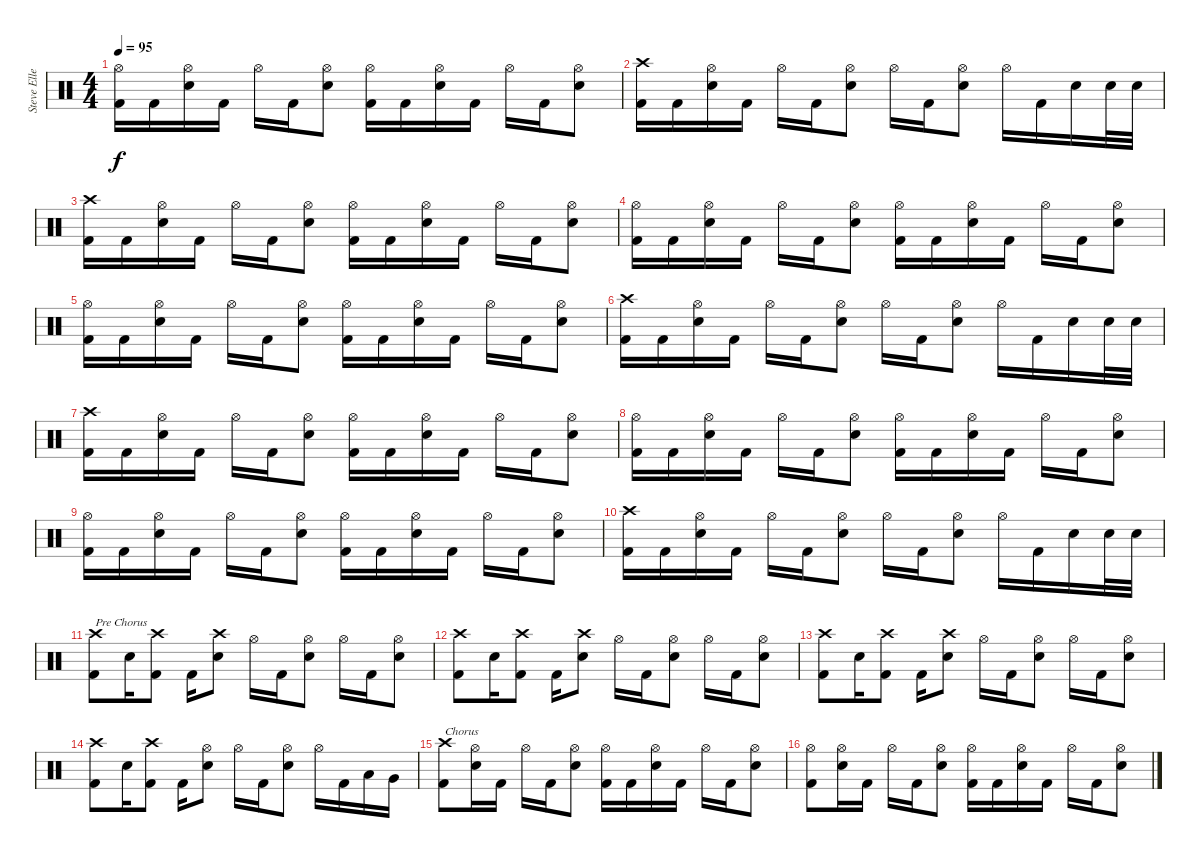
\track ("Steve Ellett" "Steve Elle") {instrument percussion}
\staff {score}
\articulation defaults
\ts (4 4)
\tempo 95
\clef neutral
\ks c
("Hi-Hat (open)" "Kick (hit) 2").16{dy f} "Kick (hit) 2".16 ("Hi-Hat (open)" "Snare (hit) 2").16 "Kick (hit) 2".16 "Hi-Hat (open)".16 "Kick (hit) 2".16 ("Hi-Hat (open)" "Snare (hit) 2").8 ("Hi-Hat (open)" "Kick (hit) 2").16 "Kick (hit) 2".16 ("Hi-Hat (open)" "Snare (hit) 2").16 "Kick (hit) 2".16 "Hi-Hat (open)".16 "Kick (hit) 2".16 ("Hi-Hat (open)" "Snare (hit) 2").8 |
("Crash high (hit)" "Kick (hit) 2").16 "Kick (hit) 2".16 ("Hi-Hat (open)" "Snare (hit) 2").16 "Kick (hit) 2".16 "Hi-Hat (open)".16 "Kick (hit) 2".16 ("Hi-Hat (open)" "Snare (hit) 2").8 "Hi-Hat (open)".16 "Kick (hit) 2".16 ("Hi-Hat (open)" "Snare (hit) 2").8 "Hi-Hat (open)".16 "Kick (hit) 2".16 "Snare (hit) 2".16 "Snare (hit) 2".32 "Snare (hit) 2".32 |
("Crash high (hit)" "Kick (hit) 2").16 "Kick (hit) 2".16 ("Hi-Hat (open)" "Snare (hit) 2").16 "Kick (hit) 2".16 "Hi-Hat (open)".16 "Kick (hit) 2".16 ("Hi-Hat (open)" "Snare (hit) 2").8 ("Hi-Hat (open)" "Kick (hit) 2").16 "Kick (hit) 2".16 ("Hi-Hat (open)" "Snare (hit) 2").16 "Kick (hit) 2".16 "Hi-Hat (open)".16 "Kick (hit) 2".16 ("Hi-Hat (open)" "Snare (hit) 2").8 |
("Hi-Hat (open)" "Kick (hit) 2").16 "Kick (hit) 2".16 ("Hi-Hat (open)" "Snare (hit) 2").16 "Kick (hit) 2".16 "Hi-Hat (open)".16 "Kick (hit) 2".16 ("Hi-Hat (open)" "Snare (hit) 2").8 ("Hi-Hat (open)" "Kick (hit) 2").16 "Kick (hit) 2".16 ("Hi-Hat (open)" "Snare (hit) 2").16 "Kick (hit) 2".16 "Hi-Hat (open)".16 "Kick (hit) 2".16 ("Hi-Hat (open)" "Snare (hit) 2").8 |
("Hi-Hat (open)" "Kick (hit) 2").16 "Kick (hit) 2".16 ("Hi-Hat (open)" "Snare (hit) 2").16 "Kick (hit) 2".16 "Hi-Hat (open)".16 "Kick (hit) 2".16 ("Hi-Hat (open)" "Snare (hit) 2").8 ("Hi-Hat (open)" "Kick (hit) 2").16 "Kick (hit) 2".16 ("Hi-Hat (open)" "Snare (hit) 2").16 "Kick (hit) 2".16 "Hi-Hat (open)".16 "Kick (hit) 2".16 ("Hi-Hat (open)" "Snare (hit) 2").8 |
("Crash high (hit)" "Kick (hit) 2").16 "Kick (hit) 2".16 ("Hi-Hat (open)" "Snare (hit) 2").16 "Kick (hit) 2".16 "Hi-Hat (open)".16 "Kick (hit) 2".16 ("Hi-Hat (open)" "Snare (hit) 2").8 "Hi-Hat (open)".16 "Kick (hit) 2".16 ("Hi-Hat (open)" "Snare (hit) 2").8 "Hi-Hat (open)".16 "Kick (hit) 2".16 "Snare (hit) 2".16 "Snare (hit) 2".32 "Snare (hit) 2".32 |
("Crash high (hit)" "Kick (hit) 2").16 "Kick (hit) 2".16 ("Hi-Hat (open)" "Snare (hit) 2").16 "Kick (hit) 2".16 "Hi-Hat (open)".16 "Kick (hit) 2".16 ("Hi-Hat (open)" "Snare (hit) 2").8 ("Hi-Hat (open)" "Kick (hit) 2").16 "Kick (hit) 2".16 ("Hi-Hat (open)" "Snare (hit) 2").16 "Kick (hit) 2".16 "Hi-Hat (open)".16 "Kick (hit) 2".16 ("Hi-Hat (open)" "Snare (hit) 2").8 |
("Hi-Hat (open)" "Kick (hit) 2").16 "Kick (hit) 2".16 ("Hi-Hat (open)" "Snare (hit) 2").16 "Kick (hit) 2".16 "Hi-Hat (open)".16 "Kick (hit) 2".16 ("Hi-Hat (open)" "Snare (hit) 2").8 ("Hi-Hat (open)" "Kick (hit) 2").16 "Kick (hit) 2".16 ("Hi-Hat (open)" "Snare (hit) 2").16 "Kick (hit) 2".16 "Hi-Hat (open)".16 "Kick (hit) 2".16 ("Hi-Hat (open)" "Snare (hit) 2").8 |
("Hi-Hat (open)" "Kick (hit) 2").16 "Kick (hit) 2".16 ("Hi-Hat (open)" "Snare (hit) 2").16 "Kick (hit) 2".16 "Hi-Hat (open)".16 "Kick (hit) 2".16 ("Hi-Hat (open)" "Snare (hit) 2").8 ("Hi-Hat (open)" "Kick (hit) 2").16 "Kick (hit) 2".16 ("Hi-Hat (open)" "Snare (hit) 2").16 "Kick (hit) 2".16 "Hi-Hat (open)".16 "Kick (hit) 2".16 ("Hi-Hat (open)" "Snare (hit) 2").8 |
("Crash high (hit)" "Kick (hit) 2").16 "Kick (hit) 2".16 ("Hi-Hat (open)" "Snare (hit) 2").16 "Kick (hit) 2".16 "Hi-Hat (open)".16 "Kick (hit) 2".16 ("Hi-Hat (open)" "Snare (hit) 2").8 "Hi-Hat (open)".16 "Kick (hit) 2".16 ("Hi-Hat (open)" "Snare (hit) 2").8 "Hi-Hat (open)".16 "Kick (hit) 2".16 "Snare (hit) 2".16 "Snare (hit) 2".32 "Snare (hit) 2".32 |
("Crash high (hit)" "Kick (hit) 2").8{txt "Pre Chorus"} "Snare (hit) 2".16 ("Crash high (hit)" "Kick (hit) 2").8 "Kick (hit) 2".16 ("Crash high (hit)" "Snare (hit) 2").8 "Hi-Hat (open)".16 "Kick (hit) 2".16 ("Hi-Hat (open)" "Snare (hit) 2").8 "Hi-Hat (open)".16 "Kick (hit) 2".16 ("Hi-Hat (open)" "Snare (hit) 2").8 |
("Crash high (hit)" "Kick (hit) 2").8 "Snare (hit) 2".16 ("Crash high (hit)" "Kick (hit) 2").8 "Kick (hit) 2".16 ("Crash high (hit)" "Snare (hit) 2").8 "Hi-Hat (open)".16 "Kick (hit) 2".16 ("Hi-Hat (open)" "Snare (hit) 2").8 "Hi-Hat (open)".16 "Kick (hit) 2".16 ("Hi-Hat (open)" "Snare (hit) 2").8 |
("Crash high (hit)" "Kick (hit) 2").8 "Snare (hit) 2".16 ("Crash high (hit)" "Kick (hit) 2").8 "Kick (hit) 2".16 ("Crash high (hit)" "Snare (hit) 2").8 "Hi-Hat (open)".16 "Kick (hit) 2".16 ("Hi-Hat (open)" "Snare (hit) 2").8 "Hi-Hat (open)".16 "Kick (hit) 2".16 ("Hi-Hat (open)" "Snare (hit) 2").8 |
("Crash high (hit)" "Kick (hit) 2").8 "Snare (hit) 2".16 ("Crash high (hit)" "Kick (hit) 2").8 "Kick (hit) 2".16 ("Hi-Hat (open)" "Snare (hit) 2").8 "Hi-Hat (open)".16 "Kick (hit) 2".16 ("Hi-Hat (open)" "Snare (hit) 2").8 "Hi-Hat (open)".16 "Kick (hit) 2".16 "Low Tom (hit)".16 "Very Low Tom (hit)".16 |
("Crash high (hit)" "Kick (hit) 2").8{txt "Chorus"} ("Hi-Hat (open)" "Snare (hit) 2").16 "Kick (hit) 2".16 "Hi-Hat (open)".16 "Kick (hit) 2".16 ("Hi-Hat (open)" "Snare (hit) 2").8 ("Hi-Hat (open)" "Kick (hit) 2").16 "Kick (hit) 2".16 ("Hi-Hat (open)" "Snare (hit) 2").16 "Kick (hit) 2".16 "Hi-Hat (open)".16 "Kick (hit) 2".16 ("Hi-Hat (open)" "Snare (hit) 2").8 |
("Hi-Hat (open)" "Kick (hit) 2").8 ("Hi-Hat (open)" "Snare (hit) 2").16 "Kick (hit) 2".16 "Hi-Hat (open)".16 "Kick (hit) 2".16 ("Hi-Hat (open)" "Snare (hit) 2").8 ("Hi-Hat (open)" "Kick (hit) 2").16 "Kick (hit) 2".16 ("Hi-Hat (open)" "Snare (hit) 2").16 "Kick (hit) 2".16 "Hi-Hat (open)".16 "Kick (hit) 2".16 ("Hi-Hat (open)" "Snare (hit) 2").8
